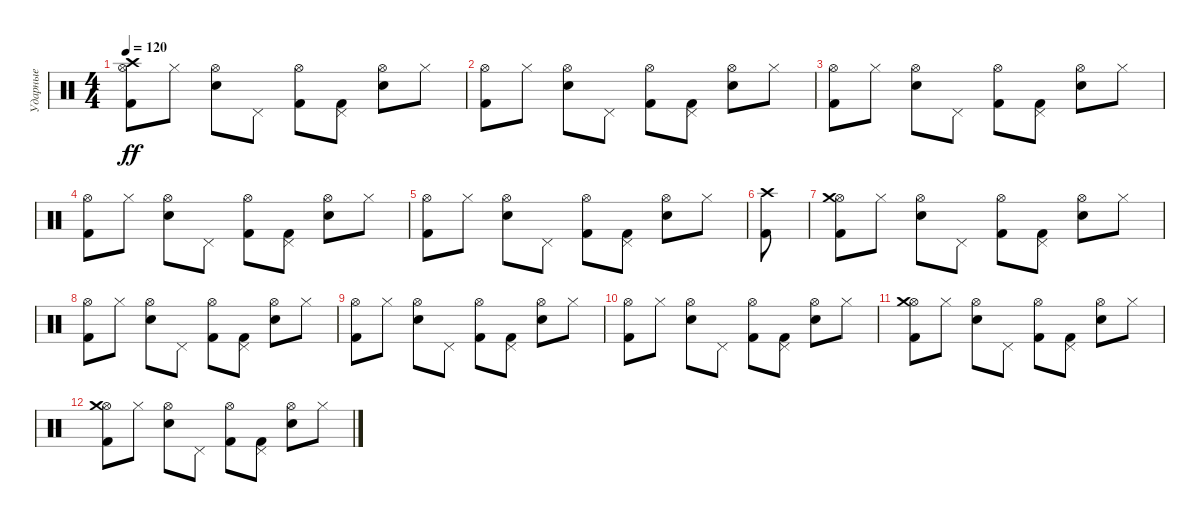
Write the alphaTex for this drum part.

\track ("Ударные" "Ударные") {instrument percussion}
\staff {score}
\articulation defaults
\ts (4 4)
\tempo 120
\clef neutral
\ks c
("Hi-Hat (open)" "Crash high (hit)" "Kick (hit) 2").8{dy ff} "Hi-Hat (closed)".8 ("Hi-Hat (open)" "Electric Snare (hit)").8 "Pedal Hi-Hat (hit)".8 ("Hi-Hat (open)" "Kick (hit) 2").8 ("Pedal Hi-Hat (hit)" "Kick (hit) 2").8 ("Hi-Hat (open)" "Electric Snare (hit)").8 "Hi-Hat (closed)".8 |
("Hi-Hat (open)" "Kick (hit) 2").8 "Hi-Hat (closed)".8 ("Hi-Hat (open)" "Electric Snare (hit)").8 "Pedal Hi-Hat (hit)".8 ("Hi-Hat (open)" "Kick (hit) 2").8 ("Pedal Hi-Hat (hit)" "Kick (hit) 2").8 ("Hi-Hat (open)" "Electric Snare (hit)").8 "Hi-Hat (closed)".8 |
("Hi-Hat (open)" "Kick (hit) 2").8 "Hi-Hat (closed)".8 ("Hi-Hat (open)" "Electric Snare (hit)").8 "Pedal Hi-Hat (hit)".8 ("Hi-Hat (open)" "Kick (hit) 2").8 ("Pedal Hi-Hat (hit)" "Kick (hit) 2").8 ("Hi-Hat (open)" "Electric Snare (hit)").8 "Hi-Hat (closed)".8 |
("Hi-Hat (open)" "Kick (hit) 2").8 "Hi-Hat (closed)".8 ("Hi-Hat (open)" "Electric Snare (hit)").8 "Pedal Hi-Hat (hit)".8 ("Hi-Hat (open)" "Kick (hit) 2").8 ("Pedal Hi-Hat (hit)" "Kick (hit) 2").8 ("Hi-Hat (open)" "Electric Snare (hit)").8 "Hi-Hat (closed)".8 |
("Hi-Hat (open)" "Kick (hit) 2").8 "Hi-Hat (closed)".8 ("Hi-Hat (open)" "Electric Snare (hit)").8 "Pedal Hi-Hat (hit)".8 ("Hi-Hat (open)" "Kick (hit) 2").8 ("Pedal Hi-Hat (hit)" "Kick (hit) 2").8 ("Hi-Hat (open)" "Electric Snare (hit)").8 "Hi-Hat (closed)".8 |
("Crash high (hit)" "Kick (hit) 2").8 |
("Hi-Hat (open)" "Crash medium (hit)" "Kick (hit) 2").8 "Hi-Hat (closed)".8 ("Hi-Hat (open)" "Electric Snare (hit)").8 "Pedal Hi-Hat (hit)".8 ("Hi-Hat (open)" "Kick (hit) 2").8 ("Pedal Hi-Hat (hit)" "Kick (hit) 2").8 ("Hi-Hat (open)" "Electric Snare (hit)").8 "Hi-Hat (closed)".8 |
("Hi-Hat (open)" "Kick (hit) 2").8 "Hi-Hat (closed)".8 ("Hi-Hat (open)" "Electric Snare (hit)").8 "Pedal Hi-Hat (hit)".8 ("Hi-Hat (open)" "Kick (hit) 2").8 ("Pedal Hi-Hat (hit)" "Kick (hit) 2").8 ("Hi-Hat (open)" "Electric Snare (hit)").8 "Hi-Hat (closed)".8 |
("Hi-Hat (open)" "Kick (hit) 2").8 "Hi-Hat (closed)".8 ("Hi-Hat (open)" "Electric Snare (hit)").8 "Pedal Hi-Hat (hit)".8 ("Hi-Hat (open)" "Kick (hit) 2").8 ("Pedal Hi-Hat (hit)" "Kick (hit) 2").8 ("Hi-Hat (open)" "Electric Snare (hit)").8 "Hi-Hat (closed)".8 |
("Hi-Hat (open)" "Kick (hit) 2").8 "Hi-Hat (closed)".8 ("Hi-Hat (open)" "Electric Snare (hit)").8 "Pedal Hi-Hat (hit)".8 ("Hi-Hat (open)" "Kick (hit) 2").8 ("Pedal Hi-Hat (hit)" "Kick (hit) 2").8 ("Hi-Hat (open)" "Electric Snare (hit)").8 "Hi-Hat (closed)".8 |
("Hi-Hat (open)" "Crash medium (hit)" "Kick (hit) 2").8 "Hi-Hat (closed)".8 ("Hi-Hat (open)" "Electric Snare (hit)").8 "Pedal Hi-Hat (hit)".8 ("Hi-Hat (open)" "Kick (hit) 2").8 ("Pedal Hi-Hat (hit)" "Kick (hit) 2").8 ("Hi-Hat (open)" "Electric Snare (hit)").8 "Hi-Hat (closed)".8 |
("Hi-Hat (open)" "Crash medium (hit)" "Kick (hit) 2").8 "Hi-Hat (closed)".8 ("Hi-Hat (open)" "Electric Snare (hit)").8 "Pedal Hi-Hat (hit)".8 ("Hi-Hat (open)" "Kick (hit) 2").8 ("Pedal Hi-Hat (hit)" "Kick (hit) 2").8 ("Hi-Hat (open)" "Electric Snare (hit)").8 "Hi-Hat (closed)".8
